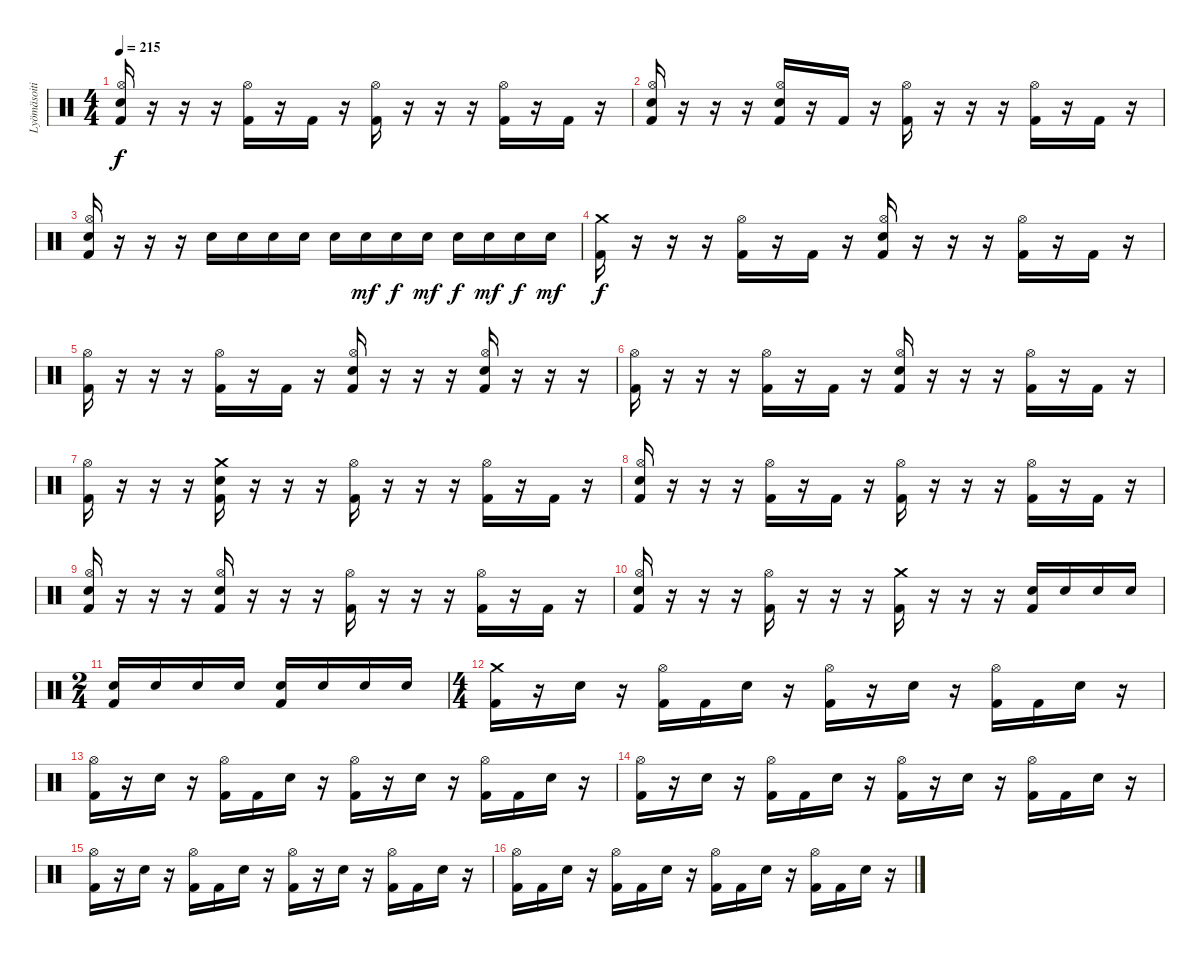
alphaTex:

\track ("Lyömäsoitin" "Lyömäsoiti") {instrument percussion}
\staff {score}
\articulation defaults
\ts (4 4)
\tempo 215
\clef neutral
\ks c
("Electric Snare (hit)" "Hi-Hat (open)" "Kick (hit) 2").16{dy f} r.16 r.16 r.16 ("Hi-Hat (open)" "Kick (hit) 2").16 r.16 "Kick (hit) 2".16 r.16 ("Hi-Hat (open)" "Kick (hit) 2").16 r.16 r.16 r.16 ("Hi-Hat (open)" "Kick (hit) 2").16 r.16 "Kick (hit) 2".16 r.16 |
("Electric Snare (hit)" "Hi-Hat (open)" "Kick (hit) 2").16 r.16 r.16 r.16 ("Electric Snare (hit)" "Hi-Hat (open)" "Kick (hit) 2").16 r.16 "Kick (hit) 2".16 r.16 ("Hi-Hat (open)" "Kick (hit) 2").16 r.16 r.16 r.16 ("Hi-Hat (open)" "Kick (hit) 2").16 r.16 "Kick (hit) 2".16 r.16 |
("Hi-Hat (open)" "Electric Snare (hit)" "Kick (hit) 2").16 r.16 r.16 r.16 "Electric Snare (hit)".16 "Electric Snare (hit)".16 "Electric Snare (hit)".16 "Electric Snare (hit)".16 "Electric Snare (hit)".16 "Electric Snare (hit)".16{dy mf} "Electric Snare (hit)".16{dy f} "Electric Snare (hit)".16{dy mf} "Electric Snare (hit)".16{dy f} "Electric Snare (hit)".16{dy mf} "Electric Snare (hit)".16{dy f} "Electric Snare (hit)".16{dy mf} |
("Crash medium (hit)" "Kick (hit) 2").16{dy f} r.16 r.16 r.16 ("Hi-Hat (open)" "Kick (hit) 2").16 r.16 "Kick (hit) 2".16 r.16 ("Electric Snare (hit)" "Hi-Hat (open)" "Kick (hit) 2").16 r.16 r.16 r.16 ("Hi-Hat (open)" "Kick (hit) 2").16 r.16 "Kick (hit) 2".16 r.16 |
("Hi-Hat (open)" "Kick (hit) 2").16 r.16 r.16 r.16 ("Hi-Hat (open)" "Kick (hit) 2").16 r.16 "Kick (hit) 2".16 r.16 ("Electric Snare (hit)" "Hi-Hat (open)" "Kick (hit) 2").16 r.16 r.16 r.16 ("Electric Snare (hit)" "Hi-Hat (open)" "Kick (hit) 2").16 r.16 r.16 r.16 |
("Hi-Hat (open)" "Kick (hit) 2").16 r.16 r.16 r.16 ("Hi-Hat (open)" "Kick (hit) 2").16 r.16 "Kick (hit) 2".16 r.16 ("Electric Snare (hit)" "Hi-Hat (open)" "Kick (hit) 2").16 r.16 r.16 r.16 ("Hi-Hat (open)" "Kick (hit) 2").16 r.16 "Kick (hit) 2".16 r.16 |
("Hi-Hat (open)" "Kick (hit) 2").16 r.16 r.16 r.16 ("Crash medium (hit)" "Electric Snare (hit)" "Kick (hit) 2").16 r.16 r.16 r.16 ("Hi-Hat (open)" "Kick (hit) 2").16 r.16 r.16 r.16 ("Hi-Hat (open)" "Kick (hit) 2").16 r.16 "Kick (hit) 2".16 r.16 |
("Electric Snare (hit)" "Hi-Hat (open)" "Kick (hit) 2").16 r.16 r.16 r.16 ("Hi-Hat (open)" "Kick (hit) 2").16 r.16 "Kick (hit) 2".16 r.16 ("Hi-Hat (open)" "Kick (hit) 2").16 r.16 r.16 r.16 ("Hi-Hat (open)" "Kick (hit) 2").16 r.16 "Kick (hit) 2".16 r.16 |
("Electric Snare (hit)" "Hi-Hat (open)" "Kick (hit) 2").16 r.16 r.16 r.16 ("Electric Snare (hit)" "Hi-Hat (open)" "Kick (hit) 2").16 r.16 r.16 r.16 ("Hi-Hat (open)" "Kick (hit) 2").16 r.16 r.16 r.16 ("Hi-Hat (open)" "Kick (hit) 2").16 r.16 "Kick (hit) 2".16 r.16 |
("Hi-Hat (open)" "Electric Snare (hit)" "Kick (hit) 2").16 r.16 r.16 r.16 ("Hi-Hat (open)" "Kick (hit) 2").16 r.16 r.16 r.16 ("Crash medium (hit)" "Kick (hit) 2").16 r.16 r.16 r.16 ("Electric Snare (hit)" "Kick (hit) 2").16 "Electric Snare (hit)".16 "Electric Snare (hit)".16 "Electric Snare (hit)".16 |
\ts (2 4)
("Electric Snare (hit)" "Kick (hit) 2").16 "Electric Snare (hit)".16 "Electric Snare (hit)".16 "Electric Snare (hit)".16 ("Electric Snare (hit)" "Kick (hit) 2").16 "Electric Snare (hit)".16 "Electric Snare (hit)".16 "Electric Snare (hit)".16 |
\ts (4 4)
("Crash medium (hit)" "Kick (hit) 2").16 r.16 "Electric Snare (hit)".16 r.16 ("Hi-Hat (open)" "Kick (hit) 2").16 "Kick (hit) 2".16 "Electric Snare (hit)".16 r.16 ("Hi-Hat (open)" "Kick (hit) 2").16 r.16 "Electric Snare (hit)".16 r.16 ("Hi-Hat (open)" "Kick (hit) 2").16 "Kick (hit) 2".16 "Electric Snare (hit)".16 r.16 |
("Hi-Hat (open)" "Kick (hit) 2").16 r.16 "Electric Snare (hit)".16 r.16 ("Hi-Hat (open)" "Kick (hit) 2").16 "Kick (hit) 2".16 "Electric Snare (hit)".16 r.16 ("Hi-Hat (open)" "Kick (hit) 2").16 r.16 "Electric Snare (hit)".16 r.16 ("Hi-Hat (open)" "Kick (hit) 2").16 "Kick (hit) 2".16 "Electric Snare (hit)".16 r.16 |
("Hi-Hat (open)" "Kick (hit) 2").16 r.16 "Electric Snare (hit)".16 r.16 ("Hi-Hat (open)" "Kick (hit) 2").16 "Kick (hit) 2".16 "Electric Snare (hit)".16 r.16 ("Hi-Hat (open)" "Kick (hit) 2").16 r.16 "Electric Snare (hit)".16 r.16 ("Hi-Hat (open)" "Kick (hit) 2").16 "Kick (hit) 2".16 "Electric Snare (hit)".16 r.16 |
("Hi-Hat (open)" "Kick (hit) 2").16 r.16 "Electric Snare (hit)".16 r.16 ("Hi-Hat (open)" "Kick (hit) 2").16 "Kick (hit) 2".16 "Electric Snare (hit)".16 r.16 ("Hi-Hat (open)" "Kick (hit) 2").16 r.16 "Electric Snare (hit)".16 r.16 ("Hi-Hat (open)" "Kick (hit) 2").16 "Kick (hit) 2".16 "Electric Snare (hit)".16 r.16 |
("Hi-Hat (open)" "Kick (hit) 2").16 "Kick (hit) 2".16 "Electric Snare (hit)".16 r.16 ("Hi-Hat (open)" "Kick (hit) 2").16 "Kick (hit) 2".16 "Electric Snare (hit)".16 r.16 ("Hi-Hat (open)" "Kick (hit) 2").16 "Kick (hit) 2".16 "Electric Snare (hit)".16 r.16 ("Hi-Hat (open)" "Kick (hit) 2").16 "Kick (hit) 2".16 "Electric Snare (hit)".16 r.16
